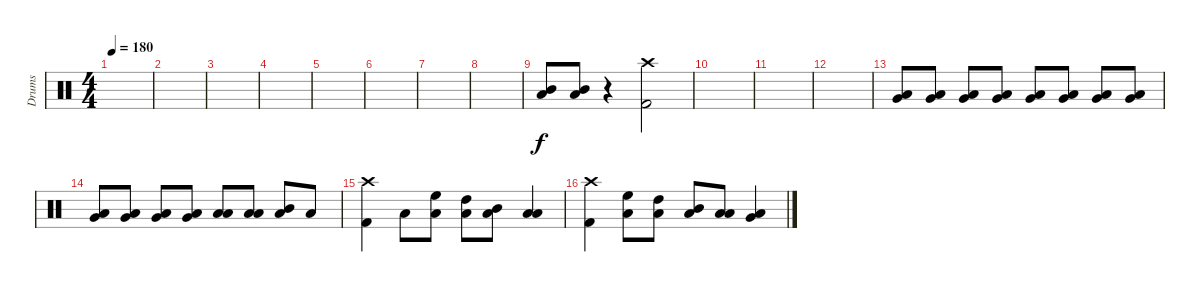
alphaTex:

\track ("Drums" "Drums") {instrument percussion}
\staff {score}
\articulation defaults
\ts (4 4)
\tempo 180
\clef neutral
\ks c
|
|
|
|
|
|
|
|
("Mid Tom (hit)" "Low Tom (hit)").8 ("Mid Tom (hit)" "Low Tom (hit)").8 r.4 ("Crash high (hit)" "Kick (hit) 2").2 |
|
|
|
("Very Low Tom (hit)" "Low Floor Tom (hit)").8 ("Very Low Tom (hit)" "Low Floor Tom (hit)").8 ("Very Low Tom (hit)" "Low Floor Tom (hit)").8 ("Very Low Tom (hit)" "Low Floor Tom (hit)").8 ("Very Low Tom (hit)" "Low Floor Tom (hit)").8 ("Very Low Tom (hit)" "Low Floor Tom (hit)").8 ("Very Low Tom (hit)" "Low Floor Tom (hit)").8 ("Very Low Tom (hit)" "Low Floor Tom (hit)").8 |
("Very Low Tom (hit)" "Low Floor Tom (hit)").8 ("Very Low Tom (hit)" "Low Floor Tom (hit)").8 ("Very Low Tom (hit)" "Low Floor Tom (hit)").8 ("Very Low Tom (hit)" "Low Floor Tom (hit)").8 ("Low Tom (hit)" "Low Floor Tom (hit)").8 ("Low Tom (hit)" "Low Floor Tom (hit)").8 ("Mid Tom (hit)" "Low Floor Tom (hit)").8 "Low Floor Tom (hit)".8 |
("Crash high (hit)" "Kick (hit) 2").4 "Low Floor Tom (hit)".8 ("High Floor Tom (hit)" "Low Floor Tom (hit)").8 ("High Tom (hit)" "Low Floor Tom (hit)").8 ("Mid Tom (hit)" "Low Floor Tom (hit)").8 ("Low Tom (hit)" "Low Floor Tom (hit)").4 |
("Crash high (hit)" "Kick (hit) 2").4 ("High Floor Tom (hit)" "Low Floor Tom (hit)").8 ("High Tom (hit)" "Low Floor Tom (hit)").8 ("Mid Tom (hit)" "Low Floor Tom (hit)").8 ("Low Tom (hit)" "Low Floor Tom (hit)").8 ("Very Low Tom (hit)" "Low Floor Tom (hit)").4
